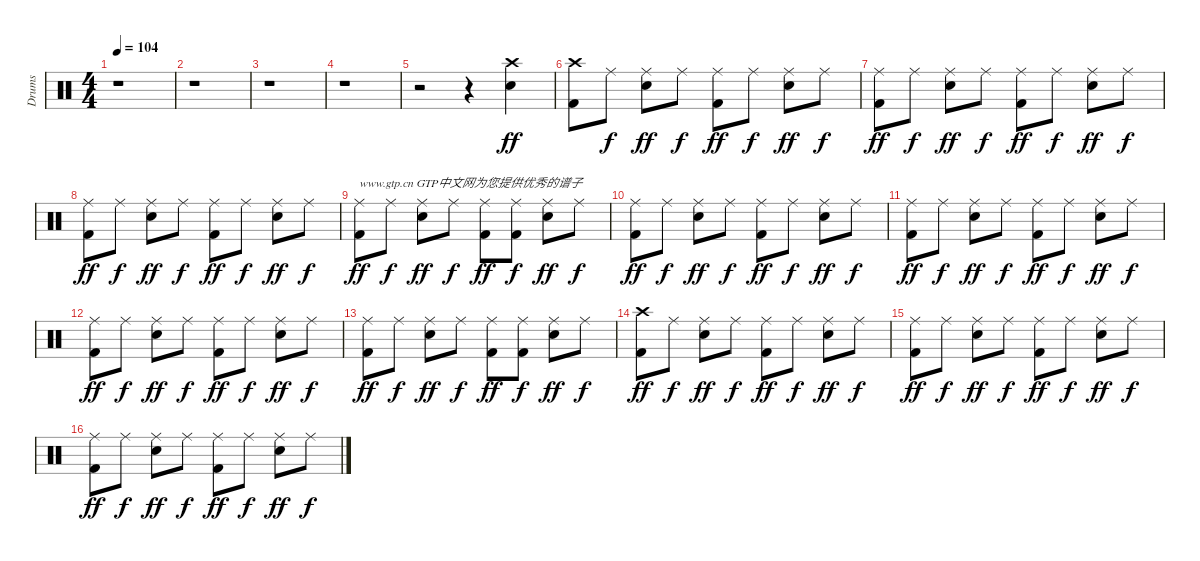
\track ("Drums" "Drums") {instrument percussion}
\staff {score}
\articulation defaults
\ts (4 4)
\tempo 104
\clef neutral
\ks c
r.1{dy ff} |
r.1 |
r.1 |
r.1 |
r.2 r.4 ("Crash high (hit)" "Snare (hit) 2").4 |
("Crash high (hit)" "Kick (hit) 2").8 "Ride (middle)".8{dy f} ("Ride (middle)" "Snare (hit) 2").8{dy ff} "Ride (middle)".8{dy f} ("Ride (middle)" "Kick (hit) 2").8{dy ff} "Ride (middle)".8{dy f} ("Ride (middle)" "Snare (hit) 2").8{dy ff} "Ride (middle)".8{dy f} |
("Ride (middle)" "Kick (hit) 2").8{dy ff} "Ride (middle)".8{dy f} ("Ride (middle)" "Snare (hit) 2").8{dy ff} "Ride (middle)".8{dy f} ("Ride (middle)" "Kick (hit) 2").8{dy ff} "Ride (middle)".8{dy f} ("Ride (middle)" "Snare (hit) 2").8{dy ff} "Ride (middle)".8{dy f} |
("Ride (middle)" "Kick (hit) 2").8{dy ff} "Ride (middle)".8{dy f} ("Ride (middle)" "Snare (hit) 2").8{dy ff} "Ride (middle)".8{dy f} ("Ride (middle)" "Kick (hit) 2").8{dy ff} "Ride (middle)".8{dy f} ("Ride (middle)" "Snare (hit) 2").8{dy ff} "Ride (middle)".8{dy f} |
("Ride (middle)" "Kick (hit) 2").8{txt "www.gtp.cn GTP中文网为您提供优秀的谱子" dy ff} "Ride (middle)".8{dy f} ("Ride (middle)" "Snare (hit) 2").8{dy ff} "Ride (middle)".8{dy f} ("Ride (middle)" "Kick (hit) 2").8{dy ff} ("Ride (middle)" "Kick (hit) 2").8{dy f} ("Ride (middle)" "Snare (hit) 2").8{dy ff} "Ride (middle)".8{dy f} |
("Ride (middle)" "Kick (hit) 2").8{dy ff} "Ride (middle)".8{dy f} ("Ride (middle)" "Snare (hit) 2").8{dy ff} "Ride (middle)".8{dy f} ("Ride (middle)" "Kick (hit) 2").8{dy ff} "Ride (middle)".8{dy f} ("Ride (middle)" "Snare (hit) 2").8{dy ff} "Ride (middle)".8{dy f} |
("Ride (middle)" "Kick (hit) 2").8{dy ff} "Ride (middle)".8{dy f} ("Ride (middle)" "Snare (hit) 2").8{dy ff} "Ride (middle)".8{dy f} ("Ride (middle)" "Kick (hit) 2").8{dy ff} "Ride (middle)".8{dy f} ("Ride (middle)" "Snare (hit) 2").8{dy ff} "Ride (middle)".8{dy f} |
("Ride (middle)" "Kick (hit) 2").8{dy ff} "Ride (middle)".8{dy f} ("Ride (middle)" "Snare (hit) 2").8{dy ff} "Ride (middle)".8{dy f} ("Ride (middle)" "Kick (hit) 2").8{dy ff} "Ride (middle)".8{dy f} ("Ride (middle)" "Snare (hit) 2").8{dy ff} "Ride (middle)".8{dy f} |
("Ride (middle)" "Kick (hit) 2").8{dy ff} "Ride (middle)".8{dy f} ("Ride (middle)" "Snare (hit) 2").8{dy ff} "Ride (middle)".8{dy f} ("Ride (middle)" "Kick (hit) 2").8{dy ff} ("Ride (middle)" "Kick (hit) 2").8{dy f} ("Ride (middle)" "Snare (hit) 2").8{dy ff} "Ride (middle)".8{dy f} |
("Crash high (hit)" "Kick (hit) 2").8{dy ff} "Ride (middle)".8{dy f} ("Ride (middle)" "Snare (hit) 2").8{dy ff} "Ride (middle)".8{dy f} ("Ride (middle)" "Kick (hit) 2").8{dy ff} "Ride (middle)".8{dy f} ("Ride (middle)" "Snare (hit) 2").8{dy ff} "Ride (middle)".8{dy f} |
("Ride (middle)" "Kick (hit) 2").8{dy ff} "Ride (middle)".8{dy f} ("Ride (middle)" "Snare (hit) 2").8{dy ff} "Ride (middle)".8{dy f} ("Ride (middle)" "Kick (hit) 2").8{dy ff} "Ride (middle)".8{dy f} ("Ride (middle)" "Snare (hit) 2").8{dy ff} "Ride (middle)".8{dy f} |
("Ride (middle)" "Kick (hit) 2").8{dy ff} "Ride (middle)".8{dy f} ("Ride (middle)" "Snare (hit) 2").8{dy ff} "Ride (middle)".8{dy f} ("Ride (middle)" "Kick (hit) 2").8{dy ff} "Ride (middle)".8{dy f} ("Ride (middle)" "Snare (hit) 2").8{dy ff} "Ride (middle)".8{dy f}
